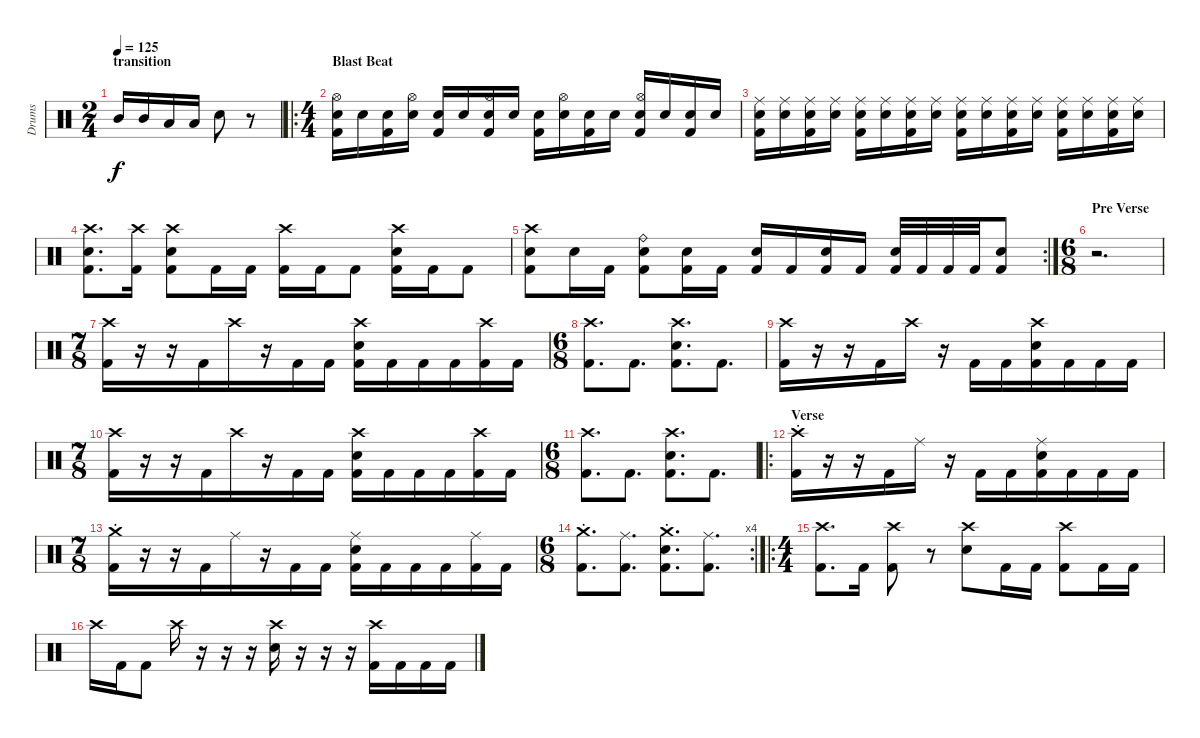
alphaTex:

\track ("Drums" "Drums") {instrument percussion}
\staff {score}
\articulation defaults
\ts (2 4)
\section ("" "transition")
\tempo 125
\clef neutral
\ks c "Mid Tom (hit)".16{dy f} "Mid Tom (hit)".16 "Low Floor Tom (hit)".16 "Low Floor Tom (hit)".16 "Electric Snare (hit)".8
r.8 |
\ro
\ts (4 4)
\section ("" "Blast Beat")
("Hi-Hat (open)" "Electric Snare (hit)" "Kick (hit) 2").16 "Electric Snare (hit)".16 ("Electric Snare (hit)" "Kick (hit) 2").16 ("Hi-Hat (open)" "Electric Snare (hit)").16 ("Electric Snare (hit)" "Kick (hit) 2").16 "Electric Snare (hit)".16 ("Hi-Hat (open)" "Electric Snare (hit)" "Kick (hit) 2").16 "Electric Snare (hit)".16 ("Electric Snare (hit)" "Kick (hit) 2").16 ("Hi-Hat (open)" "Electric Snare (hit)").16 ("Electric Snare (hit)" "Kick (hit) 2").16 "Electric Snare (hit)".16 ("Hi-Hat (open)" "Electric Snare (hit)" "Kick (hit) 2").16 "Electric Snare (hit)".16 ("Electric Snare (hit)" "Kick (hit) 2").16 "Electric Snare (hit)".16 |
("Ride (middle)" "Electric Snare (hit)" "Kick (hit) 2").16 ("Ride (middle)" "Electric Snare (hit)").16 ("Ride (middle)" "Electric Snare (hit)" "Kick (hit) 2").16 ("Ride (middle)" "Electric Snare (hit)").16 ("Ride (middle)" "Electric Snare (hit)" "Kick (hit) 2").16 ("Ride (middle)" "Electric Snare (hit)").16 ("Ride (middle)" "Electric Snare (hit)" "Kick (hit) 2").16 ("Ride (middle)" "Electric Snare (hit)").16 ("Ride (middle)" "Electric Snare (hit)" "Kick (hit) 2").16 ("Ride (middle)" "Electric Snare (hit)").16 ("Ride (middle)" "Electric Snare (hit)" "Kick (hit) 2").16 ("Ride (middle)" "Electric Snare (hit)").16 ("Ride (middle)" "Electric Snare (hit)" "Kick (hit) 2").16 ("Ride (middle)" "Electric Snare (hit)").16 ("Ride (middle)" "Electric Snare (hit)" "Kick (hit) 2").16 ("Ride (middle)" "Electric Snare (hit)").16 |
("Crash high (hit)" "Electric Snare (hit)" "Kick (hit) 2").8{d} ("Crash high (hit)" "Kick (hit) 2").16 ("Crash high (hit)" "Electric Snare (hit)" "Kick (hit) 2").8 "Kick (hit) 2".16 "Kick (hit) 2".16 ("Crash high (hit)" "Kick (hit) 2").16 "Kick (hit) 2".16 "Kick (hit) 2".8 ("Crash high (hit)" "Electric Snare (hit)" "Kick (hit) 2").16 "Kick (hit) 2".16 "Kick (hit) 2".8 |
\rc 2
("Crash high (hit)" "Electric Snare (hit)" "Kick (hit) 2").8 "Electric Snare (hit)".16 "Kick (hit) 2".16 ("Ride (bell)" "Electric Snare (hit)" "Kick (hit) 2").8 ("Electric Snare (hit)" "Kick (hit) 2").16 "Kick (hit) 2".16 ("Electric Snare (hit)" "Kick (hit) 2").16 "Kick (hit) 2".16 ("Electric Snare (hit)" "Kick (hit) 2").16 "Kick (hit) 2".16 ("Electric Snare (hit)" "Kick (hit) 2").32 "Kick (hit) 2".32 "Kick (hit) 2".32 "Kick (hit) 2".32 ("Electric Snare (hit)" "Kick (hit) 2").8 |
\ts (6 8)
\section ("" "Pre Verse")
r.2{d} |
\ts (7 8)
("Crash high (hit)" "Kick (hit) 2").16 r.16 r.16 "Kick (hit) 2".16 "Crash high (hit)".16 r.16 "Kick (hit) 2".16 "Kick (hit) 2".16 ("Crash high (hit)" "Electric Snare (hit)" "Kick (hit) 2").16 "Kick (hit) 2".16 "Kick (hit) 2".16 "Kick (hit) 2".16 ("Crash high (hit)" "Kick (hit) 2").16 "Kick (hit) 2".16 |
\ts (6 8)
("Crash high (hit)" "Kick (hit) 2").8{d} "Kick (hit) 2".8{d} ("Crash high (hit)" "Electric Snare (hit)" "Kick (hit) 2").8{d} "Kick (hit) 2".8{d} |
("Crash high (hit)" "Kick (hit) 2").16 r.16 r.16 "Kick (hit) 2".16 "Crash high (hit)".16 r.16 "Kick (hit) 2".16 "Kick (hit) 2".16 ("Crash high (hit)" "Electric Snare (hit)" "Kick (hit) 2").16 "Kick (hit) 2".16 "Kick (hit) 2".16 "Kick (hit) 2".16 |
\ts (7 8)
("Crash high (hit)" "Kick (hit) 2").16 r.16 r.16 "Kick (hit) 2".16 "Crash high (hit)".16 r.16 "Kick (hit) 2".16 "Kick (hit) 2".16 ("Crash high (hit)" "Electric Snare (hit)" "Kick (hit) 2").16 "Kick (hit) 2".16 "Kick (hit) 2".16 "Kick (hit) 2".16 ("Crash high (hit)" "Kick (hit) 2").16 "Kick (hit) 2".16 |
\ts (6 8)
("Crash high (hit)" "Kick (hit) 2").8{d} "Kick (hit) 2".8{d} ("Crash high (hit)" "Electric Snare (hit)" "Kick (hit) 2").8{d} "Kick (hit) 2".8{d} |
\ro
\section ("" "Verse")
("Crash high (hit)"{st} "Kick (hit) 2").16 r.16 r.16 "Kick (hit) 2".16 "Ride (middle)".16 r.16 "Kick (hit) 2".16 "Kick (hit) 2".16 ("Ride (middle)" "Electric Snare (hit)" "Kick (hit) 2").16 "Kick (hit) 2".16 "Kick (hit) 2".16 "Kick (hit) 2".16 |
\ts (7 8)
("Crash medium (hit)"{st} "Kick (hit) 2").16 r.16 r.16 "Kick (hit) 2".16 "Ride (middle)".16 r.16 "Kick (hit) 2".16 "Kick (hit) 2".16 ("Ride (middle)" "Electric Snare (hit)" "Kick (hit) 2").16 "Kick (hit) 2".16 "Kick (hit) 2".16 "Kick (hit) 2".16 ("Ride (middle)" "Kick (hit) 2").16 "Kick (hit) 2".16 |
\rc 4
\ts (6 8)
("Crash medium (hit)"{st} "Kick (hit) 2").8{d} ("Ride (middle)" "Kick (hit) 2").8{d} ("Crash medium (hit)"{st} "Electric Snare (hit)" "Kick (hit) 2").8{d} ("Ride (middle)" "Kick (hit) 2").8{d} |
\ro
\ts (4 4)
("Crash high (hit)" "Kick (hit) 2").8{d} "Kick (hit) 2".16 ("Crash high (hit)" "Kick (hit) 2").8 r.8 ("Crash high (hit)" "Electric Snare (hit)").8 "Kick (hit) 2".16 "Kick (hit) 2".16 ("Crash high (hit)" "Kick (hit) 2").8 "Kick (hit) 2".16 "Kick (hit) 2".16 |
"Crash high (hit)".16 "Kick (hit) 2".16 "Kick (hit) 2".8 "Crash high (hit)".16 r.16 r.16 r.16 ("Crash high (hit)" "Electric Snare (hit)").16 r.16 r.16 r.16 ("Crash high (hit)" "Kick (hit) 2").16 "Kick (hit) 2".16 "Kick (hit) 2".16 "Kick (hit) 2".16
